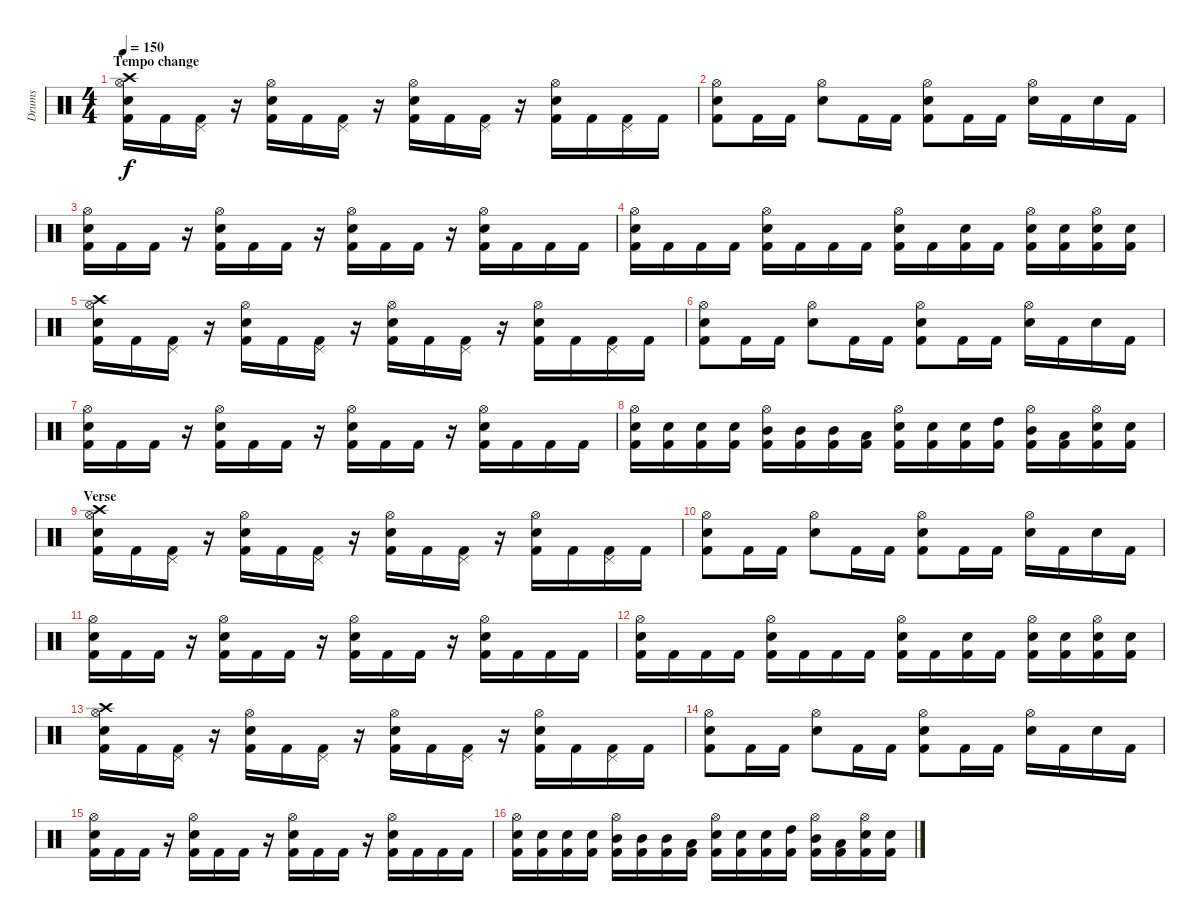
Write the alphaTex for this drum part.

\track ("Drums" "Drums") {instrument percussion}
\staff {score}
\articulation defaults
\ts (4 4)
\section ("" "Tempo change")
\tempo 150
\clef neutral
\ks c
("Crash high (hit)" "Hi-Hat (open)" "Electric Snare (hit)" "Kick (hit) 2").16{dy f} "Kick (hit) 2".16 ("Pedal Hi-Hat (hit)" "Kick (hit) 2").16 r.16 ("Hi-Hat (open)" "Electric Snare (hit)" "Kick (hit) 2").16 "Kick (hit) 2".16 ("Pedal Hi-Hat (hit)" "Kick (hit) 2").16 r.16 ("Hi-Hat (open)" "Electric Snare (hit)" "Kick (hit) 2").16 "Kick (hit) 2".16 ("Pedal Hi-Hat (hit)" "Kick (hit) 2").16 r.16 ("Hi-Hat (open)" "Electric Snare (hit)" "Kick (hit) 2").16 "Kick (hit) 2".16 ("Pedal Hi-Hat (hit)" "Kick (hit) 2").16 "Kick (hit) 2".16 |
("Hi-Hat (open)" "Electric Snare (hit)" "Kick (hit) 2").8 "Kick (hit) 2".16 "Kick (hit) 2".16 ("Hi-Hat (open)" "Electric Snare (hit)").8 "Kick (hit) 2".16 "Kick (hit) 2".16 ("Hi-Hat (open)" "Electric Snare (hit)" "Kick (hit) 2").8 "Kick (hit) 2".16 "Kick (hit) 2".16 ("Hi-Hat (open)" "Electric Snare (hit)").16 "Kick (hit) 2".16 "Electric Snare (hit)".16 "Kick (hit) 2".16 |
("Hi-Hat (open)" "Electric Snare (hit)" "Kick (hit) 2").16 "Kick (hit) 2".16 "Kick (hit) 2".16 r.16 ("Hi-Hat (open)" "Electric Snare (hit)" "Kick (hit) 2").16 "Kick (hit) 2".16 "Kick (hit) 2".16 r.16 ("Hi-Hat (open)" "Electric Snare (hit)" "Kick (hit) 2").16 "Kick (hit) 2".16 "Kick (hit) 2".16 r.16 ("Hi-Hat (open)" "Electric Snare (hit)" "Kick (hit) 2").16 "Kick (hit) 2".16 "Kick (hit) 2".16 "Kick (hit) 2".16 |
("Hi-Hat (open)" "Electric Snare (hit)" "Kick (hit) 2").16 "Kick (hit) 2".16 "Kick (hit) 2".16 "Kick (hit) 2".16 ("Hi-Hat (open)" "Electric Snare (hit)" "Kick (hit) 2").16 "Kick (hit) 2".16 "Kick (hit) 2".16 "Kick (hit) 2".16 ("Hi-Hat (open)" "Electric Snare (hit)" "Kick (hit) 2").16 "Kick (hit) 2".16 ("Electric Snare (hit)" "Kick (hit) 2").16 "Kick (hit) 2".16 ("Hi-Hat (open)" "Electric Snare (hit)" "Kick (hit) 2").16 ("Electric Snare (hit)" "Kick (hit) 2").16 ("Hi-Hat (open)" "Electric Snare (hit)" "Kick (hit) 2").16 ("Electric Snare (hit)" "Kick (hit) 2").16 |
("Crash high (hit)" "Hi-Hat (open)" "Electric Snare (hit)" "Kick (hit) 2").16 "Kick (hit) 2".16 ("Pedal Hi-Hat (hit)" "Kick (hit) 2").16 r.16 ("Hi-Hat (open)" "Electric Snare (hit)" "Kick (hit) 2").16 "Kick (hit) 2".16 ("Pedal Hi-Hat (hit)" "Kick (hit) 2").16 r.16 ("Hi-Hat (open)" "Electric Snare (hit)" "Kick (hit) 2").16 "Kick (hit) 2".16 ("Pedal Hi-Hat (hit)" "Kick (hit) 2").16 r.16 ("Hi-Hat (open)" "Electric Snare (hit)" "Kick (hit) 2").16 "Kick (hit) 2".16 ("Pedal Hi-Hat (hit)" "Kick (hit) 2").16 "Kick (hit) 2".16 |
("Hi-Hat (open)" "Electric Snare (hit)" "Kick (hit) 2").8 "Kick (hit) 2".16 "Kick (hit) 2".16 ("Hi-Hat (open)" "Electric Snare (hit)").8 "Kick (hit) 2".16 "Kick (hit) 2".16 ("Hi-Hat (open)" "Electric Snare (hit)" "Kick (hit) 2").8 "Kick (hit) 2".16 "Kick (hit) 2".16 ("Hi-Hat (open)" "Electric Snare (hit)").16 "Kick (hit) 2".16 "Electric Snare (hit)".16 "Kick (hit) 2".16 |
("Hi-Hat (open)" "Electric Snare (hit)" "Kick (hit) 2").16 "Kick (hit) 2".16 "Kick (hit) 2".16 r.16 ("Hi-Hat (open)" "Electric Snare (hit)" "Kick (hit) 2").16 "Kick (hit) 2".16 "Kick (hit) 2".16 r.16 ("Hi-Hat (open)" "Electric Snare (hit)" "Kick (hit) 2").16 "Kick (hit) 2".16 "Kick (hit) 2".16 r.16 ("Hi-Hat (open)" "Electric Snare (hit)" "Kick (hit) 2").16 "Kick (hit) 2".16 "Kick (hit) 2".16 "Kick (hit) 2".16 |
("Hi-Hat (open)" "Electric Snare (hit)" "Kick (hit) 2").16 ("Electric Snare (hit)" "Kick (hit) 2").16 ("Electric Snare (hit)" "Kick (hit) 2").16 ("Electric Snare (hit)" "Kick (hit) 2").16 ("Hi-Hat (open)" "Mid Tom (hit)" "Kick (hit) 2").16 ("Mid Tom (hit)" "Kick (hit) 2").16 ("Mid Tom (hit)" "Kick (hit) 2").16 ("Low Tom (hit)" "Kick (hit) 2").16 ("Hi-Hat (open)" "Electric Snare (hit)" "Kick (hit) 2").16 ("Electric Snare (hit)" "Kick (hit) 2").16 ("Electric Snare (hit)" "Kick (hit) 2").16 ("High Tom (hit)" "Kick (hit) 2").16 ("Hi-Hat (open)" "Mid Tom (hit)" "Kick (hit) 2").16 ("Low Tom (hit)" "Kick (hit) 2").16 ("Hi-Hat (open)" "Electric Snare (hit)" "Kick (hit) 2").16 ("Electric Snare (hit)" "Kick (hit) 2").16 |
\section ("" "Verse")
("Crash high (hit)" "Hi-Hat (open)" "Electric Snare (hit)" "Kick (hit) 2").16 "Kick (hit) 2".16 ("Pedal Hi-Hat (hit)" "Kick (hit) 2").16 r.16 ("Hi-Hat (open)" "Electric Snare (hit)" "Kick (hit) 2").16 "Kick (hit) 2".16 ("Pedal Hi-Hat (hit)" "Kick (hit) 2").16 r.16 ("Hi-Hat (open)" "Electric Snare (hit)" "Kick (hit) 2").16 "Kick (hit) 2".16 ("Pedal Hi-Hat (hit)" "Kick (hit) 2").16 r.16 ("Hi-Hat (open)" "Electric Snare (hit)" "Kick (hit) 2").16 "Kick (hit) 2".16 ("Pedal Hi-Hat (hit)" "Kick (hit) 2").16 "Kick (hit) 2".16 |
("Hi-Hat (open)" "Electric Snare (hit)" "Kick (hit) 2").8 "Kick (hit) 2".16 "Kick (hit) 2".16 ("Hi-Hat (open)" "Electric Snare (hit)").8 "Kick (hit) 2".16 "Kick (hit) 2".16 ("Hi-Hat (open)" "Electric Snare (hit)" "Kick (hit) 2").8 "Kick (hit) 2".16 "Kick (hit) 2".16 ("Hi-Hat (open)" "Electric Snare (hit)").16 "Kick (hit) 2".16 "Electric Snare (hit)".16 "Kick (hit) 2".16 |
("Hi-Hat (open)" "Electric Snare (hit)" "Kick (hit) 2").16 "Kick (hit) 2".16 "Kick (hit) 2".16 r.16 ("Hi-Hat (open)" "Electric Snare (hit)" "Kick (hit) 2").16 "Kick (hit) 2".16 "Kick (hit) 2".16 r.16 ("Hi-Hat (open)" "Electric Snare (hit)" "Kick (hit) 2").16 "Kick (hit) 2".16 "Kick (hit) 2".16 r.16 ("Hi-Hat (open)" "Electric Snare (hit)" "Kick (hit) 2").16 "Kick (hit) 2".16 "Kick (hit) 2".16 "Kick (hit) 2".16 |
("Hi-Hat (open)" "Electric Snare (hit)" "Kick (hit) 2").16 "Kick (hit) 2".16 "Kick (hit) 2".16 "Kick (hit) 2".16 ("Hi-Hat (open)" "Electric Snare (hit)" "Kick (hit) 2").16 "Kick (hit) 2".16 "Kick (hit) 2".16 "Kick (hit) 2".16 ("Hi-Hat (open)" "Electric Snare (hit)" "Kick (hit) 2").16 "Kick (hit) 2".16 ("Electric Snare (hit)" "Kick (hit) 2").16 "Kick (hit) 2".16 ("Hi-Hat (open)" "Electric Snare (hit)" "Kick (hit) 2").16 ("Electric Snare (hit)" "Kick (hit) 2").16 ("Hi-Hat (open)" "Electric Snare (hit)" "Kick (hit) 2").16 ("Electric Snare (hit)" "Kick (hit) 2").16 |
("Crash high (hit)" "Hi-Hat (open)" "Electric Snare (hit)" "Kick (hit) 2").16 "Kick (hit) 2".16 ("Pedal Hi-Hat (hit)" "Kick (hit) 2").16 r.16 ("Hi-Hat (open)" "Electric Snare (hit)" "Kick (hit) 2").16 "Kick (hit) 2".16 ("Pedal Hi-Hat (hit)" "Kick (hit) 2").16 r.16 ("Hi-Hat (open)" "Electric Snare (hit)" "Kick (hit) 2").16 "Kick (hit) 2".16 ("Pedal Hi-Hat (hit)" "Kick (hit) 2").16 r.16 ("Hi-Hat (open)" "Electric Snare (hit)" "Kick (hit) 2").16 "Kick (hit) 2".16 ("Pedal Hi-Hat (hit)" "Kick (hit) 2").16 "Kick (hit) 2".16 |
("Hi-Hat (open)" "Electric Snare (hit)" "Kick (hit) 2").8 "Kick (hit) 2".16 "Kick (hit) 2".16 ("Hi-Hat (open)" "Electric Snare (hit)").8 "Kick (hit) 2".16 "Kick (hit) 2".16 ("Hi-Hat (open)" "Electric Snare (hit)" "Kick (hit) 2").8 "Kick (hit) 2".16 "Kick (hit) 2".16 ("Hi-Hat (open)" "Electric Snare (hit)").16 "Kick (hit) 2".16 "Electric Snare (hit)".16 "Kick (hit) 2".16 |
("Hi-Hat (open)" "Electric Snare (hit)" "Kick (hit) 2").16 "Kick (hit) 2".16 "Kick (hit) 2".16 r.16 ("Hi-Hat (open)" "Electric Snare (hit)" "Kick (hit) 2").16 "Kick (hit) 2".16 "Kick (hit) 2".16 r.16 ("Hi-Hat (open)" "Electric Snare (hit)" "Kick (hit) 2").16 "Kick (hit) 2".16 "Kick (hit) 2".16 r.16 ("Hi-Hat (open)" "Electric Snare (hit)" "Kick (hit) 2").16 "Kick (hit) 2".16 "Kick (hit) 2".16 "Kick (hit) 2".16 |
("Hi-Hat (open)" "Electric Snare (hit)" "Kick (hit) 2").16 ("Electric Snare (hit)" "Kick (hit) 2").16 ("Electric Snare (hit)" "Kick (hit) 2").16 ("Electric Snare (hit)" "Kick (hit) 2").16 ("Hi-Hat (open)" "Mid Tom (hit)" "Kick (hit) 2").16 ("Mid Tom (hit)" "Kick (hit) 2").16 ("Mid Tom (hit)" "Kick (hit) 2").16 ("Low Tom (hit)" "Kick (hit) 2").16 ("Hi-Hat (open)" "Electric Snare (hit)" "Kick (hit) 2").16 ("Electric Snare (hit)" "Kick (hit) 2").16 ("Electric Snare (hit)" "Kick (hit) 2").16 ("High Tom (hit)" "Kick (hit) 2").16 ("Hi-Hat (open)" "Mid Tom (hit)" "Kick (hit) 2").16 ("Low Tom (hit)" "Kick (hit) 2").16 ("Hi-Hat (open)" "Electric Snare (hit)" "Kick (hit) 2").16 ("Electric Snare (hit)" "Kick (hit) 2").16
